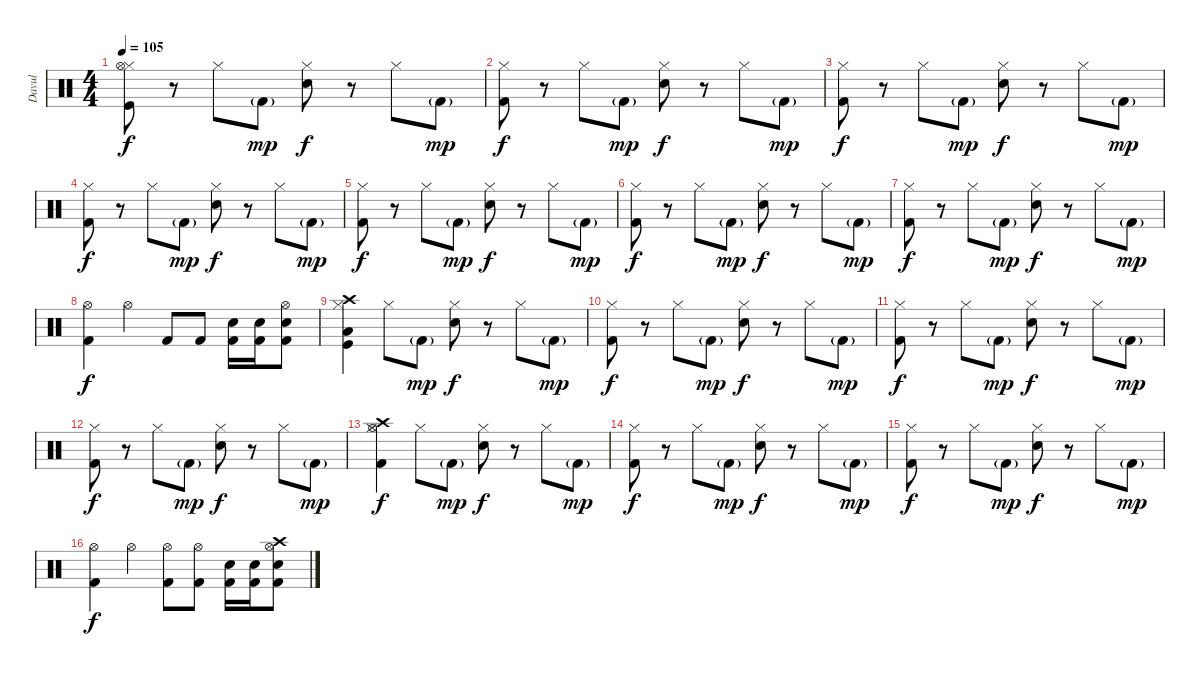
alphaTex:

\track ("Davul" "Davul") {instrument percussion}
\staff {score}
\articulation defaults
\ts (4 4)
\tempo 105
\clef neutral
\ks c
("Hi-Hat (closed)" "Kick (hit)" "Hi-Hat (open)").8{dy f} r.8 "Hi-Hat (closed)".8 "Kick (hit) 2"{g}.8{dy mp} ("Hi-Hat (closed)" "Electric Snare (hit)").8{dy f} r.8 "Hi-Hat (closed)".8 "Kick (hit) 2"{g}.8{dy mp} |
("Hi-Hat (closed)" "Kick (hit) 2").8{dy f} r.8 "Hi-Hat (closed)".8 "Kick (hit) 2"{g}.8{dy mp} ("Hi-Hat (closed)" "Electric Snare (hit)").8{dy f} r.8 "Hi-Hat (closed)".8 "Kick (hit) 2"{g}.8{dy mp} |
("Hi-Hat (closed)" "Kick (hit) 2").8{dy f} r.8 "Hi-Hat (closed)".8 "Kick (hit) 2"{g}.8{dy mp} ("Hi-Hat (closed)" "Electric Snare (hit)").8{dy f} r.8 "Hi-Hat (closed)".8 "Kick (hit) 2"{g}.8{dy mp} |
("Hi-Hat (closed)" "Kick (hit) 2").8{dy f} r.8 "Hi-Hat (closed)".8 "Kick (hit) 2"{g}.8{dy mp} ("Hi-Hat (closed)" "Electric Snare (hit)").8{dy f} r.8 "Hi-Hat (closed)".8 "Kick (hit) 2"{g}.8{dy mp} |
("Hi-Hat (closed)" "Kick (hit) 2").8{dy f} r.8 "Hi-Hat (closed)".8 "Kick (hit) 2"{g}.8{dy mp} ("Hi-Hat (closed)" "Electric Snare (hit)").8{dy f} r.8 "Hi-Hat (closed)".8 "Kick (hit) 2"{g}.8{dy mp} |
("Hi-Hat (closed)" "Kick (hit) 2").8{dy f} r.8 "Hi-Hat (closed)".8 "Kick (hit) 2"{g}.8{dy mp} ("Hi-Hat (closed)" "Electric Snare (hit)").8{dy f} r.8 "Hi-Hat (closed)".8 "Kick (hit) 2"{g}.8{dy mp} |
("Hi-Hat (closed)" "Kick (hit) 2").8{dy f} r.8 "Hi-Hat (closed)".8 "Kick (hit) 2"{g}.8{dy mp} ("Hi-Hat (closed)" "Electric Snare (hit)").8{dy f} r.8 "Hi-Hat (closed)".8 "Kick (hit) 2"{g}.8{dy mp} |
("Hi-Hat (open)" "Kick (hit) 2").4{dy f volume 16} "Hi-Hat (open)".4 "Kick (hit) 2".8 "Kick (hit) 2".8 ("Kick (hit) 2" "Snare (hit) 2").16 ("Kick (hit) 2" "Snare (hit) 2").16 ("Kick (hit) 2" "Snare (hit) 2" "Hi-Hat (open)").8 |
("Hi-Hat (closed)" "Kick (hit)" "Low Floor Tom (hit)" "Crash high (hit)").4 "Hi-Hat (closed)".8 "Kick (hit) 2"{g}.8{dy mp} ("Hi-Hat (closed)" "Electric Snare (hit)").8{dy f} r.8 "Hi-Hat (closed)".8 "Kick (hit) 2"{g}.8{dy mp} |
("Hi-Hat (closed)" "Kick (hit) 2").8{dy f} r.8 "Hi-Hat (closed)".8 "Kick (hit) 2"{g}.8{dy mp} ("Hi-Hat (closed)" "Electric Snare (hit)").8{dy f} r.8 "Hi-Hat (closed)".8 "Kick (hit) 2"{g}.8{dy mp} |
("Hi-Hat (closed)" "Kick (hit) 2").8{dy f} r.8 "Hi-Hat (closed)".8 "Kick (hit) 2"{g}.8{dy mp} ("Hi-Hat (closed)" "Electric Snare (hit)").8{dy f} r.8 "Hi-Hat (closed)".8 "Kick (hit) 2"{g}.8{dy mp} |
("Hi-Hat (closed)" "Kick (hit) 2").8{dy f} r.8 "Hi-Hat (closed)".8 "Kick (hit) 2"{g}.8{dy mp} ("Hi-Hat (closed)" "Electric Snare (hit)").8{dy f} r.8 "Hi-Hat (closed)".8 "Kick (hit) 2"{g}.8{dy mp} |
("Hi-Hat (closed)" "Kick (hit) 2" "Hi-Hat (open)" "Crash high (hit)").4{dy f} "Hi-Hat (closed)".8 "Kick (hit) 2"{g}.8{dy mp} ("Hi-Hat (closed)" "Electric Snare (hit)").8{dy f} r.8 "Hi-Hat (closed)".8 "Kick (hit) 2"{g}.8{dy mp} |
("Hi-Hat (closed)" "Kick (hit) 2").8{dy f} r.8 "Hi-Hat (closed)".8 "Kick (hit) 2"{g}.8{dy mp} ("Hi-Hat (closed)" "Electric Snare (hit)").8{dy f} r.8 "Hi-Hat (closed)".8 "Kick (hit) 2"{g}.8{dy mp} |
("Hi-Hat (closed)" "Kick (hit) 2").8{dy f} r.8 "Hi-Hat (closed)".8 "Kick (hit) 2"{g}.8{dy mp} ("Hi-Hat (closed)" "Electric Snare (hit)").8{dy f} r.8 "Hi-Hat (closed)".8 "Kick (hit) 2"{g}.8{dy mp} |
("Hi-Hat (open)" "Kick (hit) 2").4{dy f} "Hi-Hat (open)".4 ("Kick (hit) 2" "Hi-Hat (open)").8 ("Kick (hit) 2" "Hi-Hat (open)").8 ("Kick (hit) 2" "Snare (hit) 2").16 ("Kick (hit) 2" "Snare (hit) 2").16 ("Kick (hit) 2" "Snare (hit) 2" "Hi-Hat (open)" "Crash high (hit)").8
